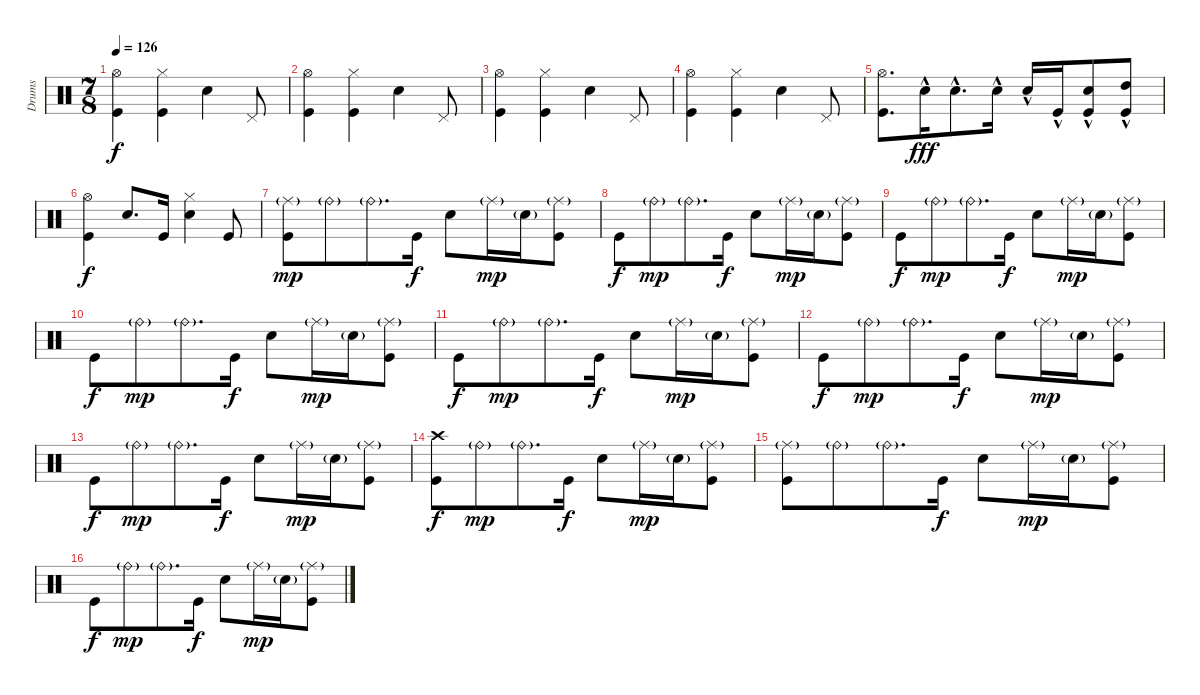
\track ("Drums" "Drums") {instrument percussion}
\staff {score}
\articulation defaults
\ts (7 8)
\tempo 126
\clef neutral
\ks c
("Hi-Hat (open)" "Kick (hit)").4{dy f} ("Hi-Hat (closed)" "Kick (hit)").4 "Snare (hit) 2".4 "Pedal Hi-Hat (hit)".8 |
("Hi-Hat (open)" "Kick (hit)").4 ("Hi-Hat (closed)" "Kick (hit)").4 "Snare (hit) 2".4 "Pedal Hi-Hat (hit)".8 |
("Hi-Hat (open)" "Kick (hit)").4 ("Hi-Hat (closed)" "Kick (hit)").4 "Snare (hit) 2".4 "Pedal Hi-Hat (hit)".8 |
("Hi-Hat (open)" "Kick (hit)").4 ("Hi-Hat (closed)" "Kick (hit)").4 "Snare (hit) 2".4 "Pedal Hi-Hat (hit)".8 |
("Hi-Hat (open)" "Kick (hit)").8{d} "Snare (hit) 2"{hac}.16{dy fff} "Snare (hit) 2"{hac}.8{d} "Snare (hit) 2"{hac}.16 "Snare (hit) 2"{hac}.16 "Kick (hit)"{hac}.16 ("Snare (hit) 2"{hac} "Kick (hit)"{hac}).8 ("High Tom (hit)"{hac} "Kick (hit)"{hac}).8 |
("Hi-Hat (open)" "Kick (hit)").4{dy f} "Snare (hit) 2".8{d} "Kick (hit)".16 ("Hi-Hat (closed)" "Snare (hit) 2").4 "Kick (hit)".8 |
("Ride (middle)"{g} "Kick (hit)").8{dy mp} "Ride (bell)"{g}.8 "Ride (bell)"{g}.8{d} "Kick (hit)".16{dy f} "Snare (hit) 2".8 "Ride (middle)"{g}.16{dy mp} "Snare (hit) 2"{g}.16 ("Ride (middle)"{g} "Kick (hit)").8 |
"Kick (hit)".8{dy f} "Ride (bell)"{g}.8{dy mp} "Ride (bell)"{g}.8{d} "Kick (hit)".16{dy f} "Snare (hit) 2".8 "Ride (middle)"{g}.16{dy mp} "Snare (hit) 2"{g}.16 ("Ride (middle)"{g} "Kick (hit)").8 |
"Kick (hit)".8{dy f} "Ride (bell)"{g}.8{dy mp} "Ride (bell)"{g}.8{d} "Kick (hit)".16{dy f} "Snare (hit) 2".8 "Ride (middle)"{g}.16{dy mp} "Snare (hit) 2"{g}.16 ("Ride (middle)"{g} "Kick (hit)").8 |
"Kick (hit)".8{dy f} "Ride (bell)"{g}.8{dy mp} "Ride (bell)"{g}.8{d} "Kick (hit)".16{dy f} "Snare (hit) 2".8 "Ride (middle)"{g}.16{dy mp} "Snare (hit) 2"{g}.16 ("Ride (middle)"{g} "Kick (hit)").8 |
"Kick (hit)".8{dy f} "Ride (bell)"{g}.8{dy mp} "Ride (bell)"{g}.8{d} "Kick (hit)".16{dy f} "Snare (hit) 2".8 "Ride (middle)"{g}.16{dy mp} "Snare (hit) 2"{g}.16 ("Ride (middle)"{g} "Kick (hit)").8 |
"Kick (hit)".8{dy f} "Ride (bell)"{g}.8{dy mp} "Ride (bell)"{g}.8{d} "Kick (hit)".16{dy f} "Snare (hit) 2".8 "Ride (middle)"{g}.16{dy mp} "Snare (hit) 2"{g}.16 ("Ride (middle)"{g} "Kick (hit)").8 |
"Kick (hit)".8{dy f} "Ride (bell)"{g}.8{dy mp} "Ride (bell)"{g}.8{d} "Kick (hit)".16{dy f} "Snare (hit) 2".8 "Ride (middle)"{g}.16{dy mp} "Snare (hit) 2"{g}.16 ("Ride (middle)"{g} "Kick (hit)").8 |
("Crash high (hit)" "Kick (hit)").8{dy f} "Ride (bell)"{g}.8{dy mp} "Ride (bell)"{g}.8{d} "Kick (hit)".16{dy f} "Snare (hit) 2".8 "Ride (middle)"{g}.16{dy mp} "Snare (hit) 2"{g}.16 ("Ride (middle)"{g} "Kick (hit)").8 |
("Ride (middle)"{g} "Kick (hit)").8 "Ride (bell)"{g}.8 "Ride (bell)"{g}.8{d} "Kick (hit)".16{dy f} "Snare (hit) 2".8 "Ride (middle)"{g}.16{dy mp} "Snare (hit) 2"{g}.16 ("Ride (middle)"{g} "Kick (hit)").8 |
"Kick (hit)".8{dy f} "Ride (bell)"{g}.8{dy mp} "Ride (bell)"{g}.8{d} "Kick (hit)".16{dy f} "Snare (hit) 2".8 "Ride (middle)"{g}.16{dy mp} "Snare (hit) 2"{g}.16 ("Ride (middle)"{g} "Kick (hit)").8
